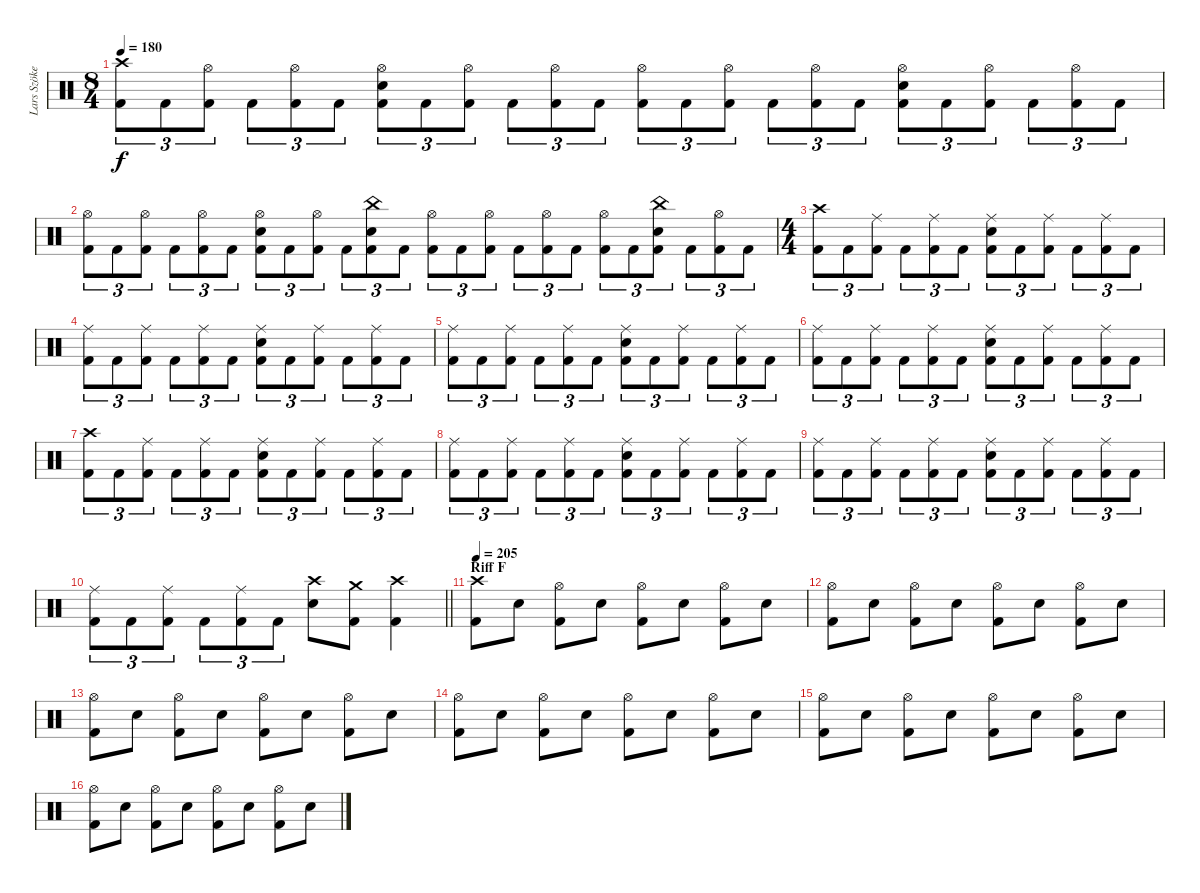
\track ("Lars Szöke" "Lars Szöke") {instrument percussion}
\staff {score}
\articulation defaults
\ts (8 4)
\tempo 180
\clef neutral
\ks c
("Crash high (hit)" "Kick (hit) 2").8{tu (3 2) dy f} "Kick (hit) 2".8{tu (3 2)} ("Hi-Hat (open)" "Kick (hit) 2").8{tu (3 2)} "Kick (hit) 2".8{tu (3 2)} ("Hi-Hat (open)" "Kick (hit) 2").8{tu (3 2)} "Kick (hit) 2".8{tu (3 2)} ("Hi-Hat (open)" "Snare (hit) 2" "Kick (hit) 2").8{tu (3 2)} "Kick (hit) 2".8{tu (3 2)} ("Hi-Hat (open)" "Kick (hit) 2").8{tu (3 2)} "Kick (hit) 2".8{tu (3 2)} ("Hi-Hat (open)" "Kick (hit) 2").8{tu (3 2)} "Kick (hit) 2".8{tu (3 2)} ("Hi-Hat (open)" "Kick (hit) 2").8{tu (3 2)} "Kick (hit) 2".8{tu (3 2)} ("Hi-Hat (open)" "Kick (hit) 2").8{tu (3 2)} "Kick (hit) 2".8{tu (3 2)} ("Hi-Hat (open)" "Kick (hit) 2").8{tu (3 2)} "Kick (hit) 2".8{tu (3 2)} ("Hi-Hat (open)" "Snare (hit) 2" "Kick (hit) 2").8{tu (3 2)} "Kick (hit) 2".8{tu (3 2)} ("Hi-Hat (open)" "Kick (hit) 2").8{tu (3 2)} "Kick (hit) 2".8{tu (3 2)} ("Hi-Hat (open)" "Kick (hit) 2").8{tu (3 2)} "Kick (hit) 2".8{tu (3 2)} |
("Hi-Hat (open)" "Kick (hit) 2").8{tu (3 2)} "Kick (hit) 2".8{tu (3 2)} ("Hi-Hat (open)" "Kick (hit) 2").8{tu (3 2)} "Kick (hit) 2".8{tu (3 2)} ("Hi-Hat (open)" "Kick (hit) 2").8{tu (3 2)} "Kick (hit) 2".8{tu (3 2)} ("Hi-Hat (open)" "Snare (hit) 2" "Kick (hit) 2").8{tu (3 2)} "Kick (hit) 2".8{tu (3 2)} ("Hi-Hat (open)" "Kick (hit) 2").8{tu (3 2)} "Kick (hit) 2".8{tu (3 2)} ("China (hit)" "Snare (hit) 2" "Kick (hit) 2").8{tu (3 2)} "Kick (hit) 2".8{tu (3 2)} ("Hi-Hat (open)" "Kick (hit) 2").8{tu (3 2)} "Kick (hit) 2".8{tu (3 2)} ("Hi-Hat (open)" "Kick (hit) 2").8{tu (3 2)} "Kick (hit) 2".8{tu (3 2)} ("Hi-Hat (open)" "Kick (hit) 2").8{tu (3 2)} "Kick (hit) 2".8{tu (3 2)} ("Hi-Hat (open)" "Kick (hit) 2").8{tu (3 2)} "Kick (hit) 2".8{tu (3 2)} ("China (hit)" "Snare (hit) 2" "Kick (hit) 2").8{tu (3 2)} "Kick (hit) 2".8{tu (3 2)} ("Hi-Hat (open)" "Kick (hit) 2").8{tu (3 2)} "Kick (hit) 2".8{tu (3 2)} |
\ts (4 4)
("Crash high (hit)" "Kick (hit) 2").8{tu (3 2)} "Kick (hit) 2".8{tu (3 2)} ("Ride (middle)" "Kick (hit) 2").8{tu (3 2)} "Kick (hit) 2".8{tu (3 2)} ("Ride (middle)" "Kick (hit) 2").8{tu (3 2)} "Kick (hit) 2".8{tu (3 2)} ("Ride (middle)" "Snare (hit) 2" "Kick (hit) 2").8{tu (3 2)} "Kick (hit) 2".8{tu (3 2)} ("Ride (middle)" "Kick (hit) 2").8{tu (3 2)} "Kick (hit) 2".8{tu (3 2)} ("Ride (middle)" "Kick (hit) 2").8{tu (3 2)} "Kick (hit) 2".8{tu (3 2)} |
("Ride (middle)" "Kick (hit) 2").8{tu (3 2)} "Kick (hit) 2".8{tu (3 2)} ("Ride (middle)" "Kick (hit) 2").8{tu (3 2)} "Kick (hit) 2".8{tu (3 2)} ("Ride (middle)" "Kick (hit) 2").8{tu (3 2)} "Kick (hit) 2".8{tu (3 2)} ("Ride (middle)" "Snare (hit) 2" "Kick (hit) 2").8{tu (3 2)} "Kick (hit) 2".8{tu (3 2)} ("Ride (middle)" "Kick (hit) 2").8{tu (3 2)} "Kick (hit) 2".8{tu (3 2)} ("Ride (middle)" "Kick (hit) 2").8{tu (3 2)} "Kick (hit) 2".8{tu (3 2)} |
("Ride (middle)" "Kick (hit) 2").8{tu (3 2)} "Kick (hit) 2".8{tu (3 2)} ("Ride (middle)" "Kick (hit) 2").8{tu (3 2)} "Kick (hit) 2".8{tu (3 2)} ("Ride (middle)" "Kick (hit) 2").8{tu (3 2)} "Kick (hit) 2".8{tu (3 2)} ("Ride (middle)" "Snare (hit) 2" "Kick (hit) 2").8{tu (3 2)} "Kick (hit) 2".8{tu (3 2)} ("Ride (middle)" "Kick (hit) 2").8{tu (3 2)} "Kick (hit) 2".8{tu (3 2)} ("Ride (middle)" "Kick (hit) 2").8{tu (3 2)} "Kick (hit) 2".8{tu (3 2)} |
("Ride (middle)" "Kick (hit) 2").8{tu (3 2)} "Kick (hit) 2".8{tu (3 2)} ("Ride (middle)" "Kick (hit) 2").8{tu (3 2)} "Kick (hit) 2".8{tu (3 2)} ("Ride (middle)" "Kick (hit) 2").8{tu (3 2)} "Kick (hit) 2".8{tu (3 2)} ("Ride (middle)" "Snare (hit) 2" "Kick (hit) 2").8{tu (3 2)} "Kick (hit) 2".8{tu (3 2)} ("Ride (middle)" "Kick (hit) 2").8{tu (3 2)} "Kick (hit) 2".8{tu (3 2)} ("Ride (middle)" "Kick (hit) 2").8{tu (3 2)} "Kick (hit) 2".8{tu (3 2)} |
("Crash high (hit)" "Kick (hit) 2").8{tu (3 2)} "Kick (hit) 2".8{tu (3 2)} ("Ride (middle)" "Kick (hit) 2").8{tu (3 2)} "Kick (hit) 2".8{tu (3 2)} ("Ride (middle)" "Kick (hit) 2").8{tu (3 2)} "Kick (hit) 2".8{tu (3 2)} ("Ride (middle)" "Snare (hit) 2" "Kick (hit) 2").8{tu (3 2)} "Kick (hit) 2".8{tu (3 2)} ("Ride (middle)" "Kick (hit) 2").8{tu (3 2)} "Kick (hit) 2".8{tu (3 2)} ("Ride (middle)" "Kick (hit) 2").8{tu (3 2)} "Kick (hit) 2".8{tu (3 2)} |
("Ride (middle)" "Kick (hit) 2").8{tu (3 2)} "Kick (hit) 2".8{tu (3 2)} ("Ride (middle)" "Kick (hit) 2").8{tu (3 2)} "Kick (hit) 2".8{tu (3 2)} ("Ride (middle)" "Kick (hit) 2").8{tu (3 2)} "Kick (hit) 2".8{tu (3 2)} ("Ride (middle)" "Snare (hit) 2" "Kick (hit) 2").8{tu (3 2)} "Kick (hit) 2".8{tu (3 2)} ("Ride (middle)" "Kick (hit) 2").8{tu (3 2)} "Kick (hit) 2".8{tu (3 2)} ("Ride (middle)" "Kick (hit) 2").8{tu (3 2)} "Kick (hit) 2".8{tu (3 2)} |
("Ride (middle)" "Kick (hit) 2").8{tu (3 2)} "Kick (hit) 2".8{tu (3 2)} ("Ride (middle)" "Kick (hit) 2").8{tu (3 2)} "Kick (hit) 2".8{tu (3 2)} ("Ride (middle)" "Kick (hit) 2").8{tu (3 2)} "Kick (hit) 2".8{tu (3 2)} ("Ride (middle)" "Snare (hit) 2" "Kick (hit) 2").8{tu (3 2)} "Kick (hit) 2".8{tu (3 2)} ("Ride (middle)" "Kick (hit) 2").8{tu (3 2)} "Kick (hit) 2".8{tu (3 2)} ("Ride (middle)" "Kick (hit) 2").8{tu (3 2)} "Kick (hit) 2".8{tu (3 2)} |
\barLineRight lightlight
("Ride (middle)" "Kick (hit) 2").8{tu (3 2)} "Kick (hit) 2".8{tu (3 2)} ("Ride (middle)" "Kick (hit) 2").8{tu (3 2)} "Kick (hit) 2".8{tu (3 2)} ("Ride (middle)" "Kick (hit) 2").8{tu (3 2)} "Kick (hit) 2".8{tu (3 2)} ("Crash high (hit)" "Snare (hit) 2").8 ("Crash medium (hit)" "Kick (hit) 2").8 ("Crash high (hit)" "Kick (hit) 2").4 |
\section ("" "Riff F")
\tempo 205
("Crash high (hit)" "Kick (hit) 2").8 "Snare (hit) 2".8 ("Hi-Hat (open)" "Kick (hit) 2").8 "Snare (hit) 2".8 ("Hi-Hat (open)" "Kick (hit) 2").8 "Snare (hit) 2".8 ("Hi-Hat (open)" "Kick (hit) 2").8 "Snare (hit) 2".8 |
("Hi-Hat (open)" "Kick (hit) 2").8 "Snare (hit) 2".8 ("Hi-Hat (open)" "Kick (hit) 2").8 "Snare (hit) 2".8 ("Hi-Hat (open)" "Kick (hit) 2").8 "Snare (hit) 2".8 ("Hi-Hat (open)" "Kick (hit) 2").8 "Snare (hit) 2".8 |
("Hi-Hat (open)" "Kick (hit) 2").8 "Snare (hit) 2".8 ("Hi-Hat (open)" "Kick (hit) 2").8 "Snare (hit) 2".8 ("Hi-Hat (open)" "Kick (hit) 2").8 "Snare (hit) 2".8 ("Hi-Hat (open)" "Kick (hit) 2").8 "Snare (hit) 2".8 |
("Hi-Hat (open)" "Kick (hit) 2").8 "Snare (hit) 2".8 ("Hi-Hat (open)" "Kick (hit) 2").8 "Snare (hit) 2".8 ("Hi-Hat (open)" "Kick (hit) 2").8 "Snare (hit) 2".8 ("Hi-Hat (open)" "Kick (hit) 2").8 "Snare (hit) 2".8 |
("Hi-Hat (open)" "Kick (hit) 2").8 "Snare (hit) 2".8 ("Hi-Hat (open)" "Kick (hit) 2").8 "Snare (hit) 2".8 ("Hi-Hat (open)" "Kick (hit) 2").8 "Snare (hit) 2".8 ("Hi-Hat (open)" "Kick (hit) 2").8 "Snare (hit) 2".8 |
("Hi-Hat (open)" "Kick (hit) 2").8 "Snare (hit) 2".8 ("Hi-Hat (open)" "Kick (hit) 2").8 "Snare (hit) 2".8 ("Hi-Hat (open)" "Kick (hit) 2").8 "Snare (hit) 2".8 ("Hi-Hat (open)" "Kick (hit) 2").8 "Snare (hit) 2".8
